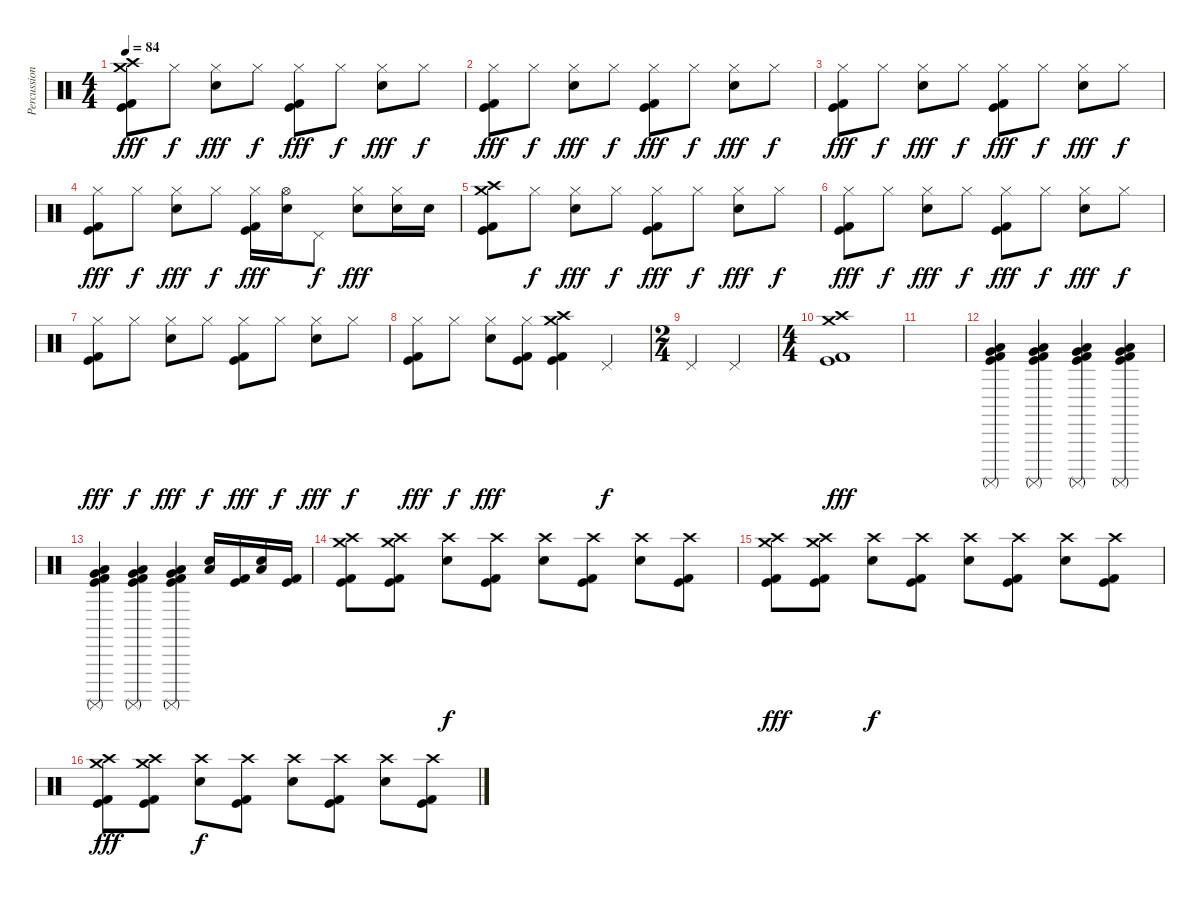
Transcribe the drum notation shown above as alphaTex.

\track ("Percussion" "Percussion") {instrument percussion}
\staff {score}
\articulation defaults
\ts (4 4)
\tempo 84
\clef neutral
\ks c
("Crash high (hit)" "Crash medium (hit)" "Kick (hit) 2" "Kick (hit)").8{dy fff} "Hi-Hat (closed)".8{dy f} ("Hi-Hat (closed)" "Snare (hit) 2").8{dy fff} "Hi-Hat (closed)".8{dy f} ("Hi-Hat (closed)" "Kick (hit) 2" "Kick (hit)").8{dy fff} "Hi-Hat (closed)".8{dy f} ("Hi-Hat (closed)" "Snare (hit) 2").8{dy fff} "Hi-Hat (closed)".8{dy f} |
("Hi-Hat (closed)" "Kick (hit) 2" "Kick (hit)").8{dy fff} "Hi-Hat (closed)".8{dy f} ("Hi-Hat (closed)" "Snare (hit) 2").8{dy fff} "Hi-Hat (closed)".8{dy f} ("Hi-Hat (closed)" "Kick (hit) 2" "Kick (hit)").8{dy fff} "Hi-Hat (closed)".8{dy f} ("Hi-Hat (closed)" "Snare (hit) 2").8{dy fff} "Hi-Hat (closed)".8{dy f} |
("Hi-Hat (closed)" "Kick (hit) 2" "Kick (hit)").8{dy fff} "Hi-Hat (closed)".8{dy f} ("Hi-Hat (closed)" "Snare (hit) 2").8{dy fff} "Hi-Hat (closed)".8{dy f} ("Hi-Hat (closed)" "Kick (hit) 2" "Kick (hit)").8{dy fff} "Hi-Hat (closed)".8{dy f} ("Hi-Hat (closed)" "Snare (hit) 2").8{dy fff} "Hi-Hat (closed)".8{dy f} |
("Hi-Hat (closed)" "Kick (hit) 2" "Kick (hit)").8{dy fff} "Hi-Hat (closed)".8{dy f} ("Hi-Hat (closed)" "Snare (hit) 2").8{dy fff} "Hi-Hat (closed)".8{dy f} ("Hi-Hat (closed)" "Kick (hit) 2" "Kick (hit)").16{dy fff} ("Hi-Hat (open)" "Snare (hit) 2").16 "Pedal Hi-Hat (hit)".8{dy f} ("Hi-Hat (closed)" "Snare (hit) 2").8{dy fff} ("Hi-Hat (closed)" "Snare (hit) 2").16 "Snare (hit) 2".16 |
("Crash high (hit)" "Crash medium (hit)" "Kick (hit) 2" "Kick (hit)").8 "Hi-Hat (closed)".8{dy f} ("Hi-Hat (closed)" "Snare (hit) 2").8{dy fff} "Hi-Hat (closed)".8{dy f} ("Hi-Hat (closed)" "Kick (hit) 2" "Kick (hit)").8{dy fff} "Hi-Hat (closed)".8{dy f} ("Hi-Hat (closed)" "Snare (hit) 2").8{dy fff} "Hi-Hat (closed)".8{dy f} |
("Hi-Hat (closed)" "Kick (hit) 2" "Kick (hit)").8{dy fff} "Hi-Hat (closed)".8{dy f} ("Hi-Hat (closed)" "Snare (hit) 2").8{dy fff} "Hi-Hat (closed)".8{dy f} ("Hi-Hat (closed)" "Kick (hit) 2" "Kick (hit)").8{dy fff} "Hi-Hat (closed)".8{dy f} ("Hi-Hat (closed)" "Snare (hit) 2").8{dy fff} "Hi-Hat (closed)".8{dy f} |
("Hi-Hat (closed)" "Kick (hit) 2" "Kick (hit)").8{dy fff} "Hi-Hat (closed)".8{dy f} ("Hi-Hat (closed)" "Snare (hit) 2").8{dy fff} "Hi-Hat (closed)".8{dy f} ("Hi-Hat (closed)" "Kick (hit) 2" "Kick (hit)").8{dy fff} "Hi-Hat (closed)".8{dy f} ("Hi-Hat (closed)" "Snare (hit) 2").8{dy fff} "Hi-Hat (closed)".8{dy f} |
("Hi-Hat (closed)" "Kick (hit) 2" "Kick (hit)").8{dy fff} "Hi-Hat (closed)".8{dy f} ("Hi-Hat (closed)" "Snare (hit) 2").8{dy fff} ("Hi-Hat (closed)" "Kick (hit) 2" "Kick (hit)").8 ("Crash high (hit)" "Crash medium (hit)" "Kick (hit) 2" "Kick (hit)").4 "Pedal Hi-Hat (hit)".4{dy f} |
\ts (2 4)
"Pedal Hi-Hat (hit)".4 "Pedal Hi-Hat (hit)".4 |
\ts (4 4)
("Crash high (hit)" "Crash medium (hit)" "Kick (hit) 2" "Kick (hit)").1{dy fff} |
|
("Low Floor Tom (hit)" "Very Low Tom (hit)" "Surdo (mute)" "Kick (hit) 2" "Kick (hit)").4 ("Low Floor Tom (hit)" "Very Low Tom (hit)" "Surdo (mute)" "Kick (hit) 2" "Kick (hit)").4 ("Low Floor Tom (hit)" "Very Low Tom (hit)" "Surdo (mute)" "Kick (hit) 2" "Kick (hit)").4 ("Low Floor Tom (hit)" "Very Low Tom (hit)" "Surdo (mute)" "Kick (hit) 2" "Kick (hit)").4 |
("Low Floor Tom (hit)" "Very Low Tom (hit)" "Surdo (mute)" "Kick (hit) 2" "Kick (hit)").4 ("Low Floor Tom (hit)" "Very Low Tom (hit)" "Surdo (mute)" "Kick (hit) 2" "Kick (hit)").4 ("Low Floor Tom (hit)" "Very Low Tom (hit)" "Surdo (mute)" "Kick (hit) 2" "Kick (hit)").4 ("Low Floor Tom (hit)" "Snare (hit) 2").16{volume 16} ("Kick (hit) 2" "Kick (hit)").16 ("Low Floor Tom (hit)" "Snare (hit) 2").16 ("Kick (hit) 2" "Kick (hit)").16 |
("Crash high (hit)" "Crash medium (hit)" "Kick (hit) 2" "Kick (hit)").8{volume 14} ("Crash high (hit)" "Crash medium (hit)" "Kick (hit) 2" "Kick (hit)").8 ("Crash high (hit)" "Snare (hit) 2").8{dy f} ("Crash high (hit)" "Kick (hit) 2" "Kick (hit)").8 ("Crash high (hit)" "Snare (hit) 2").8 ("Crash high (hit)" "Kick (hit) 2" "Kick (hit)").8 ("Crash high (hit)" "Snare (hit) 2").8 ("Crash high (hit)" "Kick (hit) 2" "Kick (hit)").8 |
("Crash high (hit)" "Crash medium (hit)" "Kick (hit) 2" "Kick (hit)").8{dy fff} ("Crash high (hit)" "Crash medium (hit)" "Kick (hit) 2" "Kick (hit)").8 ("Crash high (hit)" "Snare (hit) 2").8{dy f} ("Crash high (hit)" "Kick (hit) 2" "Kick (hit)").8 ("Crash high (hit)" "Snare (hit) 2").8 ("Crash high (hit)" "Kick (hit) 2" "Kick (hit)").8 ("Crash high (hit)" "Snare (hit) 2").8 ("Crash high (hit)" "Kick (hit) 2" "Kick (hit)").8 |
("Crash high (hit)" "Crash medium (hit)" "Kick (hit) 2" "Kick (hit)").8{dy fff} ("Crash high (hit)" "Crash medium (hit)" "Kick (hit) 2" "Kick (hit)").8 ("Crash high (hit)" "Snare (hit) 2").8{dy f} ("Crash high (hit)" "Kick (hit) 2" "Kick (hit)").8 ("Crash high (hit)" "Snare (hit) 2").8 ("Crash high (hit)" "Kick (hit) 2" "Kick (hit)").8 ("Crash high (hit)" "Snare (hit) 2").8 ("Crash high (hit)" "Kick (hit) 2" "Kick (hit)").8
